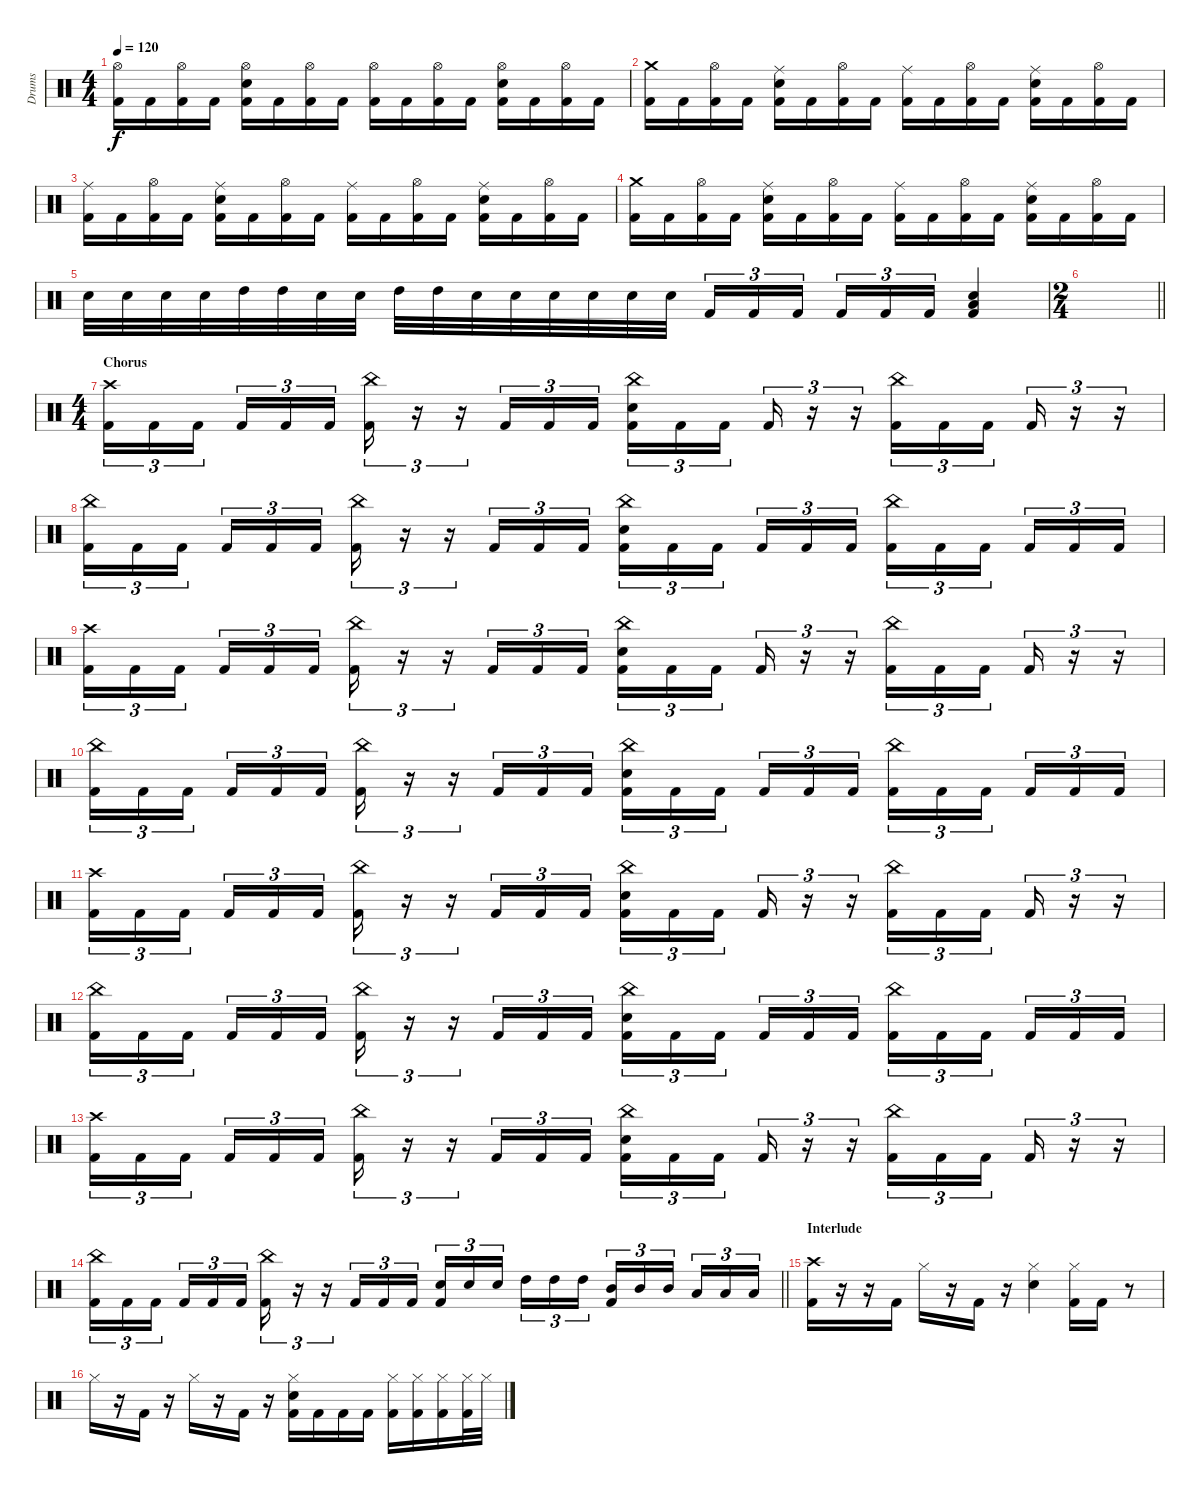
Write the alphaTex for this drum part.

\track ("Drums" "Drums") {instrument percussion}
\staff {score}
\articulation defaults
\ts (4 4)
\tempo 120
\clef neutral
\ks c
("Hi-Hat (open)" "Kick (hit) 2").16{dy f} "Kick (hit) 2".16 ("Hi-Hat (open)" "Kick (hit) 2").16 "Kick (hit) 2".16 ("Hi-Hat (open)" "Snare (hit) 2" "Kick (hit) 2").16 "Kick (hit) 2".16 ("Hi-Hat (open)" "Kick (hit) 2").16 "Kick (hit) 2".16 ("Hi-Hat (open)" "Kick (hit) 2").16 "Kick (hit) 2".16 ("Hi-Hat (open)" "Kick (hit) 2").16 "Kick (hit) 2".16 ("Hi-Hat (open)" "Snare (hit) 2" "Kick (hit) 2").16 "Kick (hit) 2".16 ("Hi-Hat (open)" "Kick (hit) 2").16 "Kick (hit) 2".16 |
("Crash medium (hit)" "Kick (hit) 2").16 "Kick (hit) 2".16 ("Hi-Hat (open)" "Kick (hit) 2").16 "Kick (hit) 2".16 ("Ride (middle)" "Snare (hit) 2" "Kick (hit) 2").16 "Kick (hit) 2".16 ("Hi-Hat (open)" "Kick (hit) 2").16 "Kick (hit) 2".16 ("Ride (middle)" "Kick (hit) 2").16 "Kick (hit) 2".16 ("Hi-Hat (open)" "Kick (hit) 2").16 "Kick (hit) 2".16 ("Ride (middle)" "Snare (hit) 2" "Kick (hit) 2").16 "Kick (hit) 2".16 ("Hi-Hat (open)" "Kick (hit) 2").16 "Kick (hit) 2".16 |
("Ride (middle)" "Kick (hit) 2").16 "Kick (hit) 2".16 ("Hi-Hat (open)" "Kick (hit) 2").16 "Kick (hit) 2".16 ("Ride (middle)" "Snare (hit) 2" "Kick (hit) 2").16 "Kick (hit) 2".16 ("Hi-Hat (open)" "Kick (hit) 2").16 "Kick (hit) 2".16 ("Ride (middle)" "Kick (hit) 2").16 "Kick (hit) 2".16 ("Hi-Hat (open)" "Kick (hit) 2").16 "Kick (hit) 2".16 ("Ride (middle)" "Snare (hit) 2" "Kick (hit) 2").16 "Kick (hit) 2".16 ("Hi-Hat (open)" "Kick (hit) 2").16 "Kick (hit) 2".16 |
("Crash medium (hit)" "Kick (hit) 2").16 "Kick (hit) 2".16 ("Hi-Hat (open)" "Kick (hit) 2").16 "Kick (hit) 2".16 ("Ride (middle)" "Snare (hit) 2" "Kick (hit) 2").16 "Kick (hit) 2".16 ("Hi-Hat (open)" "Kick (hit) 2").16 "Kick (hit) 2".16 ("Ride (middle)" "Kick (hit) 2").16 "Kick (hit) 2".16 ("Hi-Hat (open)" "Kick (hit) 2").16 "Kick (hit) 2".16 ("Ride (middle)" "Snare (hit) 2" "Kick (hit) 2").16 "Kick (hit) 2".16 ("Hi-Hat (open)" "Kick (hit) 2").16 "Kick (hit) 2".16 |
"Snare (hit) 2".32 "Snare (hit) 2".32 "Snare (hit) 2".32 "Snare (hit) 2".32 "High Tom (hit)".32 "High Tom (hit)".32 "Snare (hit) 2".32 "Snare (hit) 2".32 "High Tom (hit)".32 "High Tom (hit)".32 "Snare (hit) 2".32 "Snare (hit) 2".32 "Snare (hit) 2".32 "Snare (hit) 2".32 "Snare (hit) 2".32 "Snare (hit) 2".32 "Kick (hit) 2".16{tu (3 2)} "Kick (hit) 2".16{tu (3 2)} "Kick (hit) 2".16{tu (3 2) beam splitsecondary} "Kick (hit) 2".16{tu (3 2)} "Kick (hit) 2".16{tu (3 2)} "Kick (hit) 2".16{tu (3 2)} ("Low Tom (hit)" "Snare (hit) 2" "Kick (hit) 2").4 |
\ts (2 4)
\barLineRight lightlight
|
\ts (4 4)
\section ("" "Chorus")
("Crash high (hit)" "Kick (hit) 2").16{tu (3 2)} "Kick (hit) 2".16{tu (3 2)} "Kick (hit) 2".16{tu (3 2) beam splitsecondary} "Kick (hit) 2".16{tu (3 2)} "Kick (hit) 2".16{tu (3 2)} "Kick (hit) 2".16{tu (3 2)} ("China (hit)" "Kick (hit) 2").16{tu (3 2)} r.16{tu (3 2)} r.16{tu (3 2)} "Kick (hit) 2".16{tu (3 2)} "Kick (hit) 2".16{tu (3 2)} "Kick (hit) 2".16{tu (3 2)} ("China (hit)" "Snare (hit) 2" "Kick (hit) 2").16{tu (3 2)} "Kick (hit) 2".16{tu (3 2)} "Kick (hit) 2".16{tu (3 2) beam splitsecondary} "Kick (hit) 2".16{tu (3 2)} r.16{tu (3 2)} r.16{tu (3 2)} ("China (hit)" "Kick (hit) 2").16{tu (3 2)} "Kick (hit) 2".16{tu (3 2)} "Kick (hit) 2".16{tu (3 2) beam splitsecondary} "Kick (hit) 2".16{tu (3 2)} r.16{tu (3 2)} r.16{tu (3 2)} |
("China (hit)" "Kick (hit) 2").16{tu (3 2)} "Kick (hit) 2".16{tu (3 2)} "Kick (hit) 2".16{tu (3 2) beam splitsecondary} "Kick (hit) 2".16{tu (3 2)} "Kick (hit) 2".16{tu (3 2)} "Kick (hit) 2".16{tu (3 2)} ("China (hit)" "Kick (hit) 2").16{tu (3 2)} r.16{tu (3 2)} r.16{tu (3 2)} "Kick (hit) 2".16{tu (3 2)} "Kick (hit) 2".16{tu (3 2)} "Kick (hit) 2".16{tu (3 2)} ("China (hit)" "Snare (hit) 2" "Kick (hit) 2").16{tu (3 2)} "Kick (hit) 2".16{tu (3 2)} "Kick (hit) 2".16{tu (3 2) beam splitsecondary} "Kick (hit) 2".16{tu (3 2)} "Kick (hit) 2".16{tu (3 2)} "Kick (hit) 2".16{tu (3 2)} ("China (hit)" "Kick (hit) 2").16{tu (3 2)} "Kick (hit) 2".16{tu (3 2)} "Kick (hit) 2".16{tu (3 2) beam splitsecondary} "Kick (hit) 2".16{tu (3 2)} "Kick (hit) 2".16{tu (3 2)} "Kick (hit) 2".16{tu (3 2)} |
("Crash high (hit)" "Kick (hit) 2").16{tu (3 2)} "Kick (hit) 2".16{tu (3 2)} "Kick (hit) 2".16{tu (3 2) beam splitsecondary} "Kick (hit) 2".16{tu (3 2)} "Kick (hit) 2".16{tu (3 2)} "Kick (hit) 2".16{tu (3 2)} ("China (hit)" "Kick (hit) 2").16{tu (3 2)} r.16{tu (3 2)} r.16{tu (3 2)} "Kick (hit) 2".16{tu (3 2)} "Kick (hit) 2".16{tu (3 2)} "Kick (hit) 2".16{tu (3 2)} ("China (hit)" "Snare (hit) 2" "Kick (hit) 2").16{tu (3 2)} "Kick (hit) 2".16{tu (3 2)} "Kick (hit) 2".16{tu (3 2) beam splitsecondary} "Kick (hit) 2".16{tu (3 2)} r.16{tu (3 2)} r.16{tu (3 2)} ("China (hit)" "Kick (hit) 2").16{tu (3 2)} "Kick (hit) 2".16{tu (3 2)} "Kick (hit) 2".16{tu (3 2) beam splitsecondary} "Kick (hit) 2".16{tu (3 2)} r.16{tu (3 2)} r.16{tu (3 2)} |
("China (hit)" "Kick (hit) 2").16{tu (3 2)} "Kick (hit) 2".16{tu (3 2)} "Kick (hit) 2".16{tu (3 2) beam splitsecondary} "Kick (hit) 2".16{tu (3 2)} "Kick (hit) 2".16{tu (3 2)} "Kick (hit) 2".16{tu (3 2)} ("China (hit)" "Kick (hit) 2").16{tu (3 2)} r.16{tu (3 2)} r.16{tu (3 2)} "Kick (hit) 2".16{tu (3 2)} "Kick (hit) 2".16{tu (3 2)} "Kick (hit) 2".16{tu (3 2)} ("China (hit)" "Snare (hit) 2" "Kick (hit) 2").16{tu (3 2)} "Kick (hit) 2".16{tu (3 2)} "Kick (hit) 2".16{tu (3 2) beam splitsecondary} "Kick (hit) 2".16{tu (3 2)} "Kick (hit) 2".16{tu (3 2)} "Kick (hit) 2".16{tu (3 2)} ("China (hit)" "Kick (hit) 2").16{tu (3 2)} "Kick (hit) 2".16{tu (3 2)} "Kick (hit) 2".16{tu (3 2) beam splitsecondary} "Kick (hit) 2".16{tu (3 2)} "Kick (hit) 2".16{tu (3 2)} "Kick (hit) 2".16{tu (3 2)} |
("Crash high (hit)" "Kick (hit) 2").16{tu (3 2)} "Kick (hit) 2".16{tu (3 2)} "Kick (hit) 2".16{tu (3 2) beam splitsecondary} "Kick (hit) 2".16{tu (3 2)} "Kick (hit) 2".16{tu (3 2)} "Kick (hit) 2".16{tu (3 2)} ("China (hit)" "Kick (hit) 2").16{tu (3 2)} r.16{tu (3 2)} r.16{tu (3 2)} "Kick (hit) 2".16{tu (3 2)} "Kick (hit) 2".16{tu (3 2)} "Kick (hit) 2".16{tu (3 2)} ("China (hit)" "Snare (hit) 2" "Kick (hit) 2").16{tu (3 2)} "Kick (hit) 2".16{tu (3 2)} "Kick (hit) 2".16{tu (3 2) beam splitsecondary} "Kick (hit) 2".16{tu (3 2)} r.16{tu (3 2)} r.16{tu (3 2)} ("China (hit)" "Kick (hit) 2").16{tu (3 2)} "Kick (hit) 2".16{tu (3 2)} "Kick (hit) 2".16{tu (3 2) beam splitsecondary} "Kick (hit) 2".16{tu (3 2)} r.16{tu (3 2)} r.16{tu (3 2)} |
("China (hit)" "Kick (hit) 2").16{tu (3 2)} "Kick (hit) 2".16{tu (3 2)} "Kick (hit) 2".16{tu (3 2) beam splitsecondary} "Kick (hit) 2".16{tu (3 2)} "Kick (hit) 2".16{tu (3 2)} "Kick (hit) 2".16{tu (3 2)} ("China (hit)" "Kick (hit) 2").16{tu (3 2)} r.16{tu (3 2)} r.16{tu (3 2)} "Kick (hit) 2".16{tu (3 2)} "Kick (hit) 2".16{tu (3 2)} "Kick (hit) 2".16{tu (3 2)} ("China (hit)" "Snare (hit) 2" "Kick (hit) 2").16{tu (3 2)} "Kick (hit) 2".16{tu (3 2)} "Kick (hit) 2".16{tu (3 2) beam splitsecondary} "Kick (hit) 2".16{tu (3 2)} "Kick (hit) 2".16{tu (3 2)} "Kick (hit) 2".16{tu (3 2)} ("China (hit)" "Kick (hit) 2").16{tu (3 2)} "Kick (hit) 2".16{tu (3 2)} "Kick (hit) 2".16{tu (3 2) beam splitsecondary} "Kick (hit) 2".16{tu (3 2)} "Kick (hit) 2".16{tu (3 2)} "Kick (hit) 2".16{tu (3 2)} |
("Crash high (hit)" "Kick (hit) 2").16{tu (3 2)} "Kick (hit) 2".16{tu (3 2)} "Kick (hit) 2".16{tu (3 2) beam splitsecondary} "Kick (hit) 2".16{tu (3 2)} "Kick (hit) 2".16{tu (3 2)} "Kick (hit) 2".16{tu (3 2)} ("China (hit)" "Kick (hit) 2").16{tu (3 2)} r.16{tu (3 2)} r.16{tu (3 2)} "Kick (hit) 2".16{tu (3 2)} "Kick (hit) 2".16{tu (3 2)} "Kick (hit) 2".16{tu (3 2)} ("China (hit)" "Snare (hit) 2" "Kick (hit) 2").16{tu (3 2)} "Kick (hit) 2".16{tu (3 2)} "Kick (hit) 2".16{tu (3 2) beam splitsecondary} "Kick (hit) 2".16{tu (3 2)} r.16{tu (3 2)} r.16{tu (3 2)} ("China (hit)" "Kick (hit) 2").16{tu (3 2)} "Kick (hit) 2".16{tu (3 2)} "Kick (hit) 2".16{tu (3 2) beam splitsecondary} "Kick (hit) 2".16{tu (3 2)} r.16{tu (3 2)} r.16{tu (3 2)} |
\barLineRight lightlight
("China (hit)" "Kick (hit) 2").16{tu (3 2)} "Kick (hit) 2".16{tu (3 2)} "Kick (hit) 2".16{tu (3 2) beam splitsecondary} "Kick (hit) 2".16{tu (3 2)} "Kick (hit) 2".16{tu (3 2)} "Kick (hit) 2".16{tu (3 2)} ("China (hit)" "Kick (hit) 2").16{tu (3 2)} r.16{tu (3 2)} r.16{tu (3 2)} "Kick (hit) 2".16{tu (3 2)} "Kick (hit) 2".16{tu (3 2)} "Kick (hit) 2".16{tu (3 2)} ("Snare (hit) 2" "Kick (hit) 2").16{tu (3 2)} "Snare (hit) 2".16{tu (3 2)} "Snare (hit) 2".16{tu (3 2) beam splitsecondary} "High Tom (hit)".16{tu (3 2)} "High Tom (hit)".16{tu (3 2)} "High Tom (hit)".16{tu (3 2)} ("Mid Tom (hit)" "Kick (hit) 2").16{tu (3 2)} "Mid Tom (hit)".16{tu (3 2)} "Mid Tom (hit)".16{tu (3 2) beam splitsecondary} "Low Tom (hit)".16{tu (3 2)} "Low Tom (hit)".16{tu (3 2)} "Low Tom (hit)".16{tu (3 2)} |
\section ("" "Interlude")
("Crash high (hit)" "Kick (hit) 2").16 r.16 r.16 "Kick (hit) 2".16 "Hi-Hat (closed)".16 r.16 "Kick (hit) 2".16 r.16 ("Hi-Hat (closed)" "Snare (hit) 2").4 ("Hi-Hat (closed)" "Kick (hit) 2").16 "Kick (hit) 2".16 r.8 |
"Hi-Hat (closed)".16 r.16 "Kick (hit) 2".16 r.16 "Hi-Hat (closed)".16 r.16 "Kick (hit) 2".16 r.16 ("Hi-Hat (closed)" "Snare (hit) 2" "Kick (hit) 2").16 "Kick (hit) 2".16 "Kick (hit) 2".16 "Kick (hit) 2".16 ("Hi-Hat (closed)" "Kick (hit) 2").16 ("Hi-Hat (closed)" "Kick (hit) 2").16 ("Hi-Hat (closed)" "Kick (hit) 2").16 ("Hi-Hat (closed)" "Kick (hit) 2").32 "Hi-Hat (closed)".32
